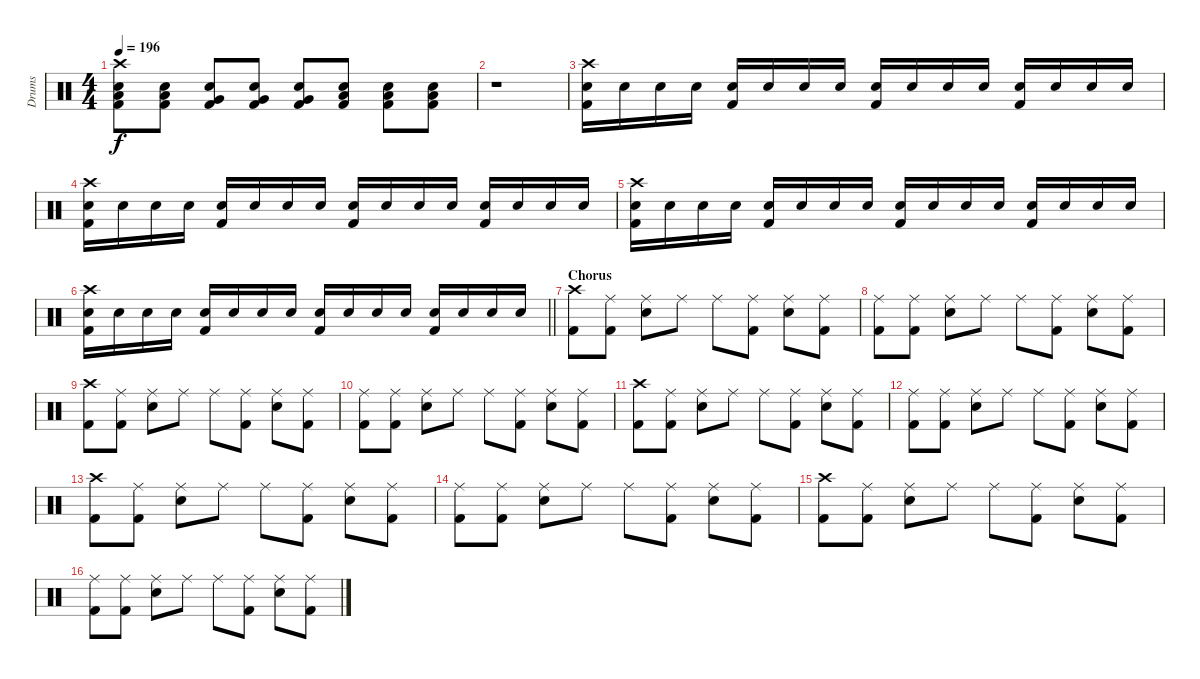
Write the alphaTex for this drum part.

\track ("Drums" "Drums") {instrument percussion}
\staff {score}
\articulation defaults
\ts (4 4)
\tempo 196
\clef neutral
\ks c
("Crash high (hit)" "Low Floor Tom (hit)" "Electric Snare (hit)" "Kick (hit) 2").8{dy f} ("Low Floor Tom (hit)" "Electric Snare (hit)" "Kick (hit) 2").8 ("Very Low Tom (hit)" "Electric Snare (hit)" "Kick (hit) 2").8 ("Very Low Tom (hit)" "Electric Snare (hit)" "Kick (hit) 2").8 ("Very Low Tom (hit)" "Electric Snare (hit)" "Kick (hit) 2").8 ("Low Tom (hit)" "Electric Snare (hit)" "Kick (hit) 2").8 ("Low Tom (hit)" "Electric Snare (hit)" "Kick (hit) 2").8 ("Low Tom (hit)" "Electric Snare (hit)" "Kick (hit) 2").8 |
r.1 |
("Crash high (hit)" "Electric Snare (hit)" "Kick (hit) 2").16 "Electric Snare (hit)".16 "Electric Snare (hit)".16 "Electric Snare (hit)".16 ("Electric Snare (hit)" "Kick (hit) 2").16 "Electric Snare (hit)".16 "Electric Snare (hit)".16 "Electric Snare (hit)".16 ("Electric Snare (hit)" "Kick (hit) 2").16 "Electric Snare (hit)".16 "Electric Snare (hit)".16 "Electric Snare (hit)".16 ("Electric Snare (hit)" "Kick (hit) 2").16 "Electric Snare (hit)".16 "Electric Snare (hit)".16 "Electric Snare (hit)".16 |
("Crash high (hit)" "Electric Snare (hit)" "Kick (hit) 2").16 "Electric Snare (hit)".16 "Electric Snare (hit)".16 "Electric Snare (hit)".16 ("Electric Snare (hit)" "Kick (hit) 2").16 "Electric Snare (hit)".16 "Electric Snare (hit)".16 "Electric Snare (hit)".16 ("Electric Snare (hit)" "Kick (hit) 2").16 "Electric Snare (hit)".16 "Electric Snare (hit)".16 "Electric Snare (hit)".16 ("Electric Snare (hit)" "Kick (hit) 2").16 "Electric Snare (hit)".16 "Electric Snare (hit)".16 "Electric Snare (hit)".16 |
("Crash high (hit)" "Electric Snare (hit)" "Kick (hit) 2").16 "Electric Snare (hit)".16 "Electric Snare (hit)".16 "Electric Snare (hit)".16 ("Electric Snare (hit)" "Kick (hit) 2").16 "Electric Snare (hit)".16 "Electric Snare (hit)".16 "Electric Snare (hit)".16 ("Electric Snare (hit)" "Kick (hit) 2").16 "Electric Snare (hit)".16 "Electric Snare (hit)".16 "Electric Snare (hit)".16 ("Electric Snare (hit)" "Kick (hit) 2").16 "Electric Snare (hit)".16 "Electric Snare (hit)".16 "Electric Snare (hit)".16 |
\barLineRight lightlight
("Crash high (hit)" "Electric Snare (hit)" "Kick (hit) 2").16 "Electric Snare (hit)".16 "Electric Snare (hit)".16 "Electric Snare (hit)".16 ("Electric Snare (hit)" "Kick (hit) 2").16 "Electric Snare (hit)".16 "Electric Snare (hit)".16 "Electric Snare (hit)".16 ("Electric Snare (hit)" "Kick (hit) 2").16 "Electric Snare (hit)".16 "Electric Snare (hit)".16 "Electric Snare (hit)".16 ("Electric Snare (hit)" "Kick (hit) 2").16 "Electric Snare (hit)".16 "Electric Snare (hit)".16 "Electric Snare (hit)".16 |
\section ("" "Chorus")
("Crash high (hit)" "Kick (hit) 2").8 ("Ride (middle)" "Kick (hit) 2").8 ("Ride (middle)" "Electric Snare (hit)").8 "Ride (middle)".8 "Ride (middle)".8 ("Ride (middle)" "Kick (hit) 2").8 ("Ride (middle)" "Electric Snare (hit)").8 ("Ride (middle)" "Kick (hit) 2").8 |
("Ride (middle)" "Kick (hit) 2").8 ("Ride (middle)" "Kick (hit) 2").8 ("Ride (middle)" "Electric Snare (hit)").8 "Ride (middle)".8 "Ride (middle)".8 ("Ride (middle)" "Kick (hit) 2").8 ("Ride (middle)" "Electric Snare (hit)").8 ("Ride (middle)" "Kick (hit) 2").8 |
("Crash high (hit)" "Kick (hit) 2").8 ("Ride (middle)" "Kick (hit) 2").8 ("Ride (middle)" "Electric Snare (hit)").8 "Ride (middle)".8 "Ride (middle)".8 ("Ride (middle)" "Kick (hit) 2").8 ("Ride (middle)" "Electric Snare (hit)").8 ("Ride (middle)" "Kick (hit) 2").8 |
("Ride (middle)" "Kick (hit) 2").8 ("Ride (middle)" "Kick (hit) 2").8 ("Ride (middle)" "Electric Snare (hit)").8 "Ride (middle)".8 "Ride (middle)".8 ("Ride (middle)" "Kick (hit) 2").8 ("Ride (middle)" "Electric Snare (hit)").8 ("Ride (middle)" "Kick (hit) 2").8 |
("Crash high (hit)" "Kick (hit) 2").8 ("Ride (middle)" "Kick (hit) 2").8 ("Ride (middle)" "Electric Snare (hit)").8 "Ride (middle)".8 "Ride (middle)".8 ("Ride (middle)" "Kick (hit) 2").8 ("Ride (middle)" "Electric Snare (hit)").8 ("Ride (middle)" "Kick (hit) 2").8 |
("Ride (middle)" "Kick (hit) 2").8 ("Ride (middle)" "Kick (hit) 2").8 ("Ride (middle)" "Electric Snare (hit)").8 "Ride (middle)".8 "Ride (middle)".8 ("Ride (middle)" "Kick (hit) 2").8 ("Ride (middle)" "Electric Snare (hit)").8 ("Ride (middle)" "Kick (hit) 2").8 |
("Crash high (hit)" "Kick (hit) 2").8 ("Ride (middle)" "Kick (hit) 2").8 ("Ride (middle)" "Electric Snare (hit)").8 "Ride (middle)".8 "Ride (middle)".8 ("Ride (middle)" "Kick (hit) 2").8 ("Ride (middle)" "Electric Snare (hit)").8 ("Ride (middle)" "Kick (hit) 2").8 |
("Ride (middle)" "Kick (hit) 2").8 ("Ride (middle)" "Kick (hit) 2").8 ("Ride (middle)" "Electric Snare (hit)").8 "Ride (middle)".8 "Ride (middle)".8 ("Ride (middle)" "Kick (hit) 2").8 ("Ride (middle)" "Electric Snare (hit)").8 ("Ride (middle)" "Kick (hit) 2").8 |
("Crash high (hit)" "Kick (hit) 2").8 ("Ride (middle)" "Kick (hit) 2").8 ("Ride (middle)" "Electric Snare (hit)").8 "Ride (middle)".8 "Ride (middle)".8 ("Ride (middle)" "Kick (hit) 2").8 ("Ride (middle)" "Electric Snare (hit)").8 ("Ride (middle)" "Kick (hit) 2").8 |
("Ride (middle)" "Kick (hit) 2").8 ("Ride (middle)" "Kick (hit) 2").8 ("Ride (middle)" "Electric Snare (hit)").8 "Ride (middle)".8 "Ride (middle)".8 ("Ride (middle)" "Kick (hit) 2").8 ("Ride (middle)" "Electric Snare (hit)").8 ("Ride (middle)" "Kick (hit) 2").8
